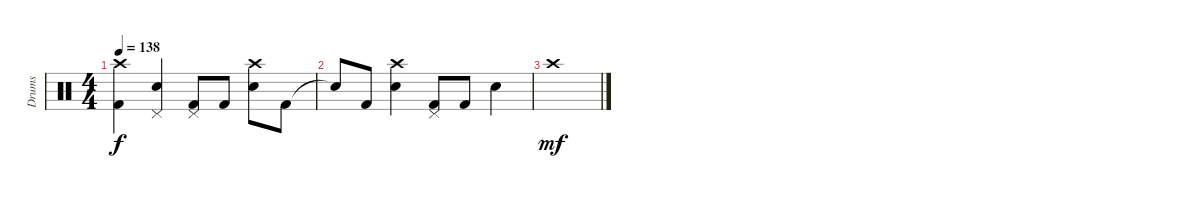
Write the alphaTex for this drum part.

\track ("Drums" "Drums") {instrument percussion}
\staff {score}
\articulation defaults
\ts (4 4)
\tempo 138
\clef neutral
\ks c
("Crash high (hit)" "Kick (hit) 2").4{dy f} ("Pedal Hi-Hat (hit)" "Snare (hit) 2").4 ("Pedal Hi-Hat (hit)" "Kick (hit) 2").8 "Kick (hit) 2".8 ("Crash high (hit)" "Snare (hit) 2").8 "Kick (hit) 2".8 |
"Snare (hit)"{t}.8 "Kick (hit) 2".8 ("Crash high (hit)" "Snare (hit) 2").4 ("Pedal Hi-Hat (hit)" "Kick (hit) 2").8 "Kick (hit) 2".8 "Snare (hit) 2".4 |
"Crash high (hit)".1{dy mf}
